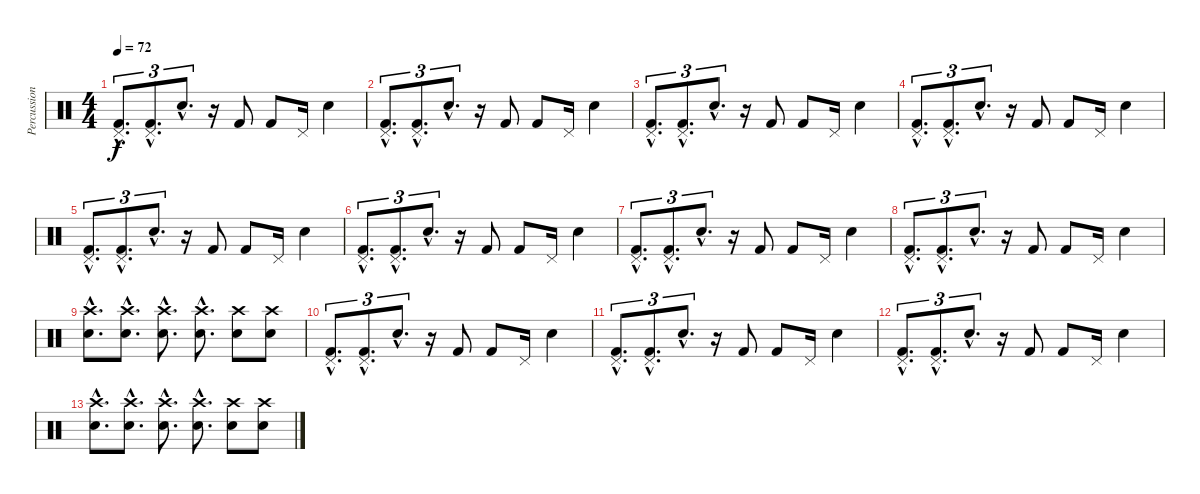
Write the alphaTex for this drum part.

\track ("Percussion" "Percussion") {instrument percussion}
\staff {score}
\articulation defaults
\ts (4 4)
\tempo 72
\clef neutral
\ks c
("Kick (hit) 2"{hac} "Pedal Hi-Hat (hit)"{hac}).8{d tu (3 2) dy f} ("Kick (hit) 2"{hac} "Pedal Hi-Hat (hit)"{hac}).8{d tu (3 2)} "Snare (hit) 2"{hac}.8{d tu (3 2)} r.16 "Kick (hit) 2".8 "Kick (hit) 2".8 "Pedal Hi-Hat (hit)".16 "Snare (hit) 2".4 |
("Kick (hit) 2"{hac} "Pedal Hi-Hat (hit)"{hac}).8{d tu (3 2)} ("Kick (hit) 2"{hac} "Pedal Hi-Hat (hit)"{hac}).8{d tu (3 2)} "Snare (hit) 2"{hac}.8{d tu (3 2)} r.16 "Kick (hit) 2".8 "Kick (hit) 2".8 "Pedal Hi-Hat (hit)".16 "Snare (hit) 2".4 |
("Kick (hit) 2"{hac} "Pedal Hi-Hat (hit)"{hac}).8{d tu (3 2)} ("Kick (hit) 2"{hac} "Pedal Hi-Hat (hit)"{hac}).8{d tu (3 2)} "Snare (hit) 2"{hac}.8{d tu (3 2)} r.16 "Kick (hit) 2".8 "Kick (hit) 2".8 "Pedal Hi-Hat (hit)".16 "Snare (hit) 2".4 |
("Kick (hit) 2"{hac} "Pedal Hi-Hat (hit)"{hac}).8{d tu (3 2)} ("Kick (hit) 2"{hac} "Pedal Hi-Hat (hit)"{hac}).8{d tu (3 2)} "Snare (hit) 2"{hac}.8{d tu (3 2)} r.16 "Kick (hit) 2".8 "Kick (hit) 2".8 "Pedal Hi-Hat (hit)".16 "Snare (hit) 2".4 |
("Kick (hit) 2"{hac} "Pedal Hi-Hat (hit)"{hac}).8{d tu (3 2)} ("Kick (hit) 2"{hac} "Pedal Hi-Hat (hit)"{hac}).8{d tu (3 2)} "Snare (hit) 2"{hac}.8{d tu (3 2)} r.16 "Kick (hit) 2".8 "Kick (hit) 2".8 "Pedal Hi-Hat (hit)".16 "Snare (hit) 2".4 |
("Kick (hit) 2"{hac} "Pedal Hi-Hat (hit)"{hac}).8{d tu (3 2)} ("Kick (hit) 2"{hac} "Pedal Hi-Hat (hit)"{hac}).8{d tu (3 2)} "Snare (hit) 2"{hac}.8{d tu (3 2)} r.16 "Kick (hit) 2".8 "Kick (hit) 2".8 "Pedal Hi-Hat (hit)".16 "Snare (hit) 2".4 |
("Kick (hit) 2"{hac} "Pedal Hi-Hat (hit)"{hac}).8{d tu (3 2)} ("Kick (hit) 2"{hac} "Pedal Hi-Hat (hit)"{hac}).8{d tu (3 2)} "Snare (hit) 2"{hac}.8{d tu (3 2)} r.16 "Kick (hit) 2".8 "Kick (hit) 2".8 "Pedal Hi-Hat (hit)".16 "Snare (hit) 2".4 |
("Kick (hit) 2"{hac} "Pedal Hi-Hat (hit)"{hac}).8{d tu (3 2)} ("Kick (hit) 2"{hac} "Pedal Hi-Hat (hit)"{hac}).8{d tu (3 2)} "Snare (hit) 2"{hac}.8{d tu (3 2)} r.16 "Kick (hit) 2".8 "Kick (hit) 2".8 "Pedal Hi-Hat (hit)".16 "Snare (hit) 2".4 |
("Crash high (hit)"{hac} "Snare (hit) 2"{hac}).8{d} ("Crash high (hit)"{hac} "Snare (hit) 2"{hac}).8{d} ("Crash high (hit)"{hac} "Snare (hit) 2"{hac}).8{d} ("Crash high (hit)"{hac} "Snare (hit) 2"{hac}).8{d} ("Crash high (hit)" "Snare (hit) 2").8 ("Crash high (hit)" "Snare (hit) 2").8 |
("Kick (hit) 2"{hac} "Pedal Hi-Hat (hit)"{hac}).8{d tu (3 2)} ("Kick (hit) 2"{hac} "Pedal Hi-Hat (hit)"{hac}).8{d tu (3 2)} "Snare (hit) 2"{hac}.8{d tu (3 2)} r.16 "Kick (hit) 2".8 "Kick (hit) 2".8 "Pedal Hi-Hat (hit)".16 "Snare (hit) 2".4 |
("Kick (hit) 2"{hac} "Pedal Hi-Hat (hit)"{hac}).8{d tu (3 2)} ("Kick (hit) 2"{hac} "Pedal Hi-Hat (hit)"{hac}).8{d tu (3 2)} "Snare (hit) 2"{hac}.8{d tu (3 2)} r.16 "Kick (hit) 2".8 "Kick (hit) 2".8 "Pedal Hi-Hat (hit)".16 "Snare (hit) 2".4 |
("Kick (hit) 2"{hac} "Pedal Hi-Hat (hit)"{hac}).8{d tu (3 2)} ("Kick (hit) 2"{hac} "Pedal Hi-Hat (hit)"{hac}).8{d tu (3 2)} "Snare (hit) 2"{hac}.8{d tu (3 2)} r.16 "Kick (hit) 2".8 "Kick (hit) 2".8 "Pedal Hi-Hat (hit)".16 "Snare (hit) 2".4 |
("Crash high (hit)"{hac} "Snare (hit) 2"{hac}).8{d} ("Crash high (hit)"{hac} "Snare (hit) 2"{hac}).8{d} ("Crash high (hit)"{hac} "Snare (hit) 2"{hac}).8{d} ("Crash high (hit)"{hac} "Snare (hit) 2"{hac}).8{d} ("Crash high (hit)" "Snare (hit) 2").8 ("Crash high (hit)" "Snare (hit) 2").8
